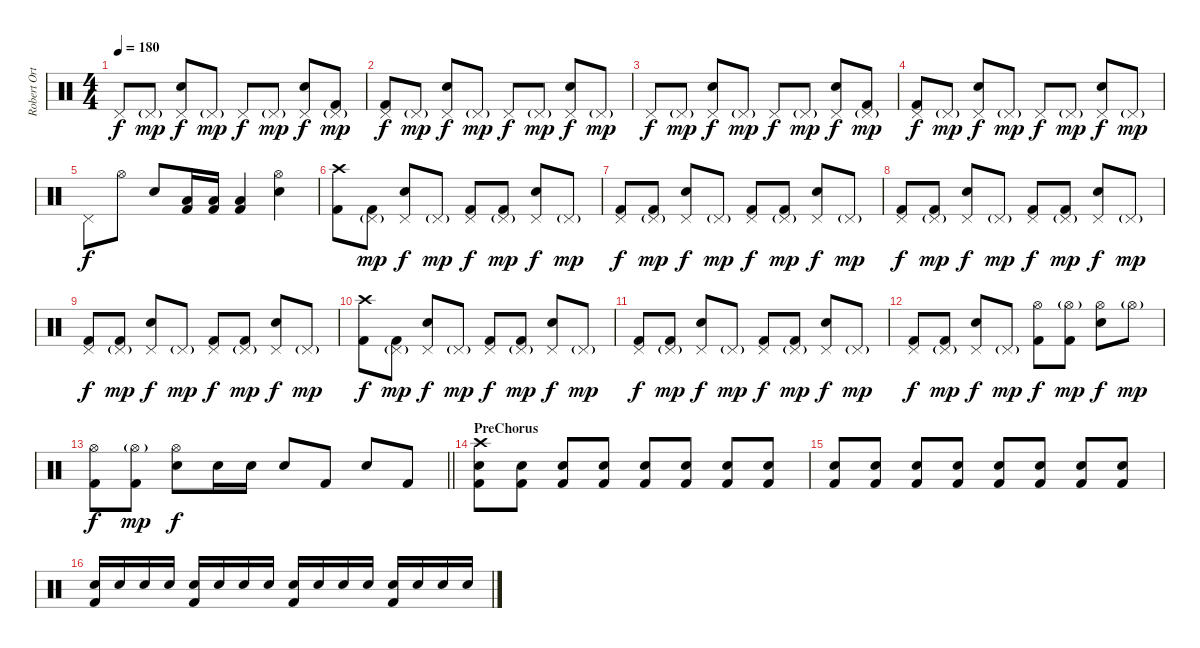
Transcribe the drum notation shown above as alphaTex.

\track ("Robert Ortiz [Drums]" "Robert Ort") {instrument percussion}
\staff {score}
\articulation defaults
\ts (4 4)
\tempo 180
\clef neutral
\ks c "Pedal Hi-Hat (hit)".8{dy f} "Pedal Hi-Hat (hit)"{g}.8{dy mp}
("Pedal Hi-Hat (hit)" "Electric Snare (hit)").8{dy f} "Pedal Hi-Hat (hit)"{g}.8{dy mp} "Pedal Hi-Hat (hit)".8{dy f} "Pedal Hi-Hat (hit)"{g}.8{dy mp} ("Pedal Hi-Hat (hit)" "Electric Snare (hit)").8{dy f} ("Pedal Hi-Hat (hit)"{g} "Kick (hit) 2").8{dy mp} |
("Pedal Hi-Hat (hit)" "Kick (hit) 2").8{dy f} "Pedal Hi-Hat (hit)"{g}.8{dy mp} ("Pedal Hi-Hat (hit)" "Electric Snare (hit)").8{dy f} "Pedal Hi-Hat (hit)"{g}.8{dy mp} "Pedal Hi-Hat (hit)".8{dy f} "Pedal Hi-Hat (hit)"{g}.8{dy mp} ("Pedal Hi-Hat (hit)" "Electric Snare (hit)").8{dy f} "Pedal Hi-Hat (hit)"{g}.8{dy mp} |
"Pedal Hi-Hat (hit)".8{dy f} "Pedal Hi-Hat (hit)"{g}.8{dy mp} ("Pedal Hi-Hat (hit)" "Electric Snare (hit)").8{dy f} "Pedal Hi-Hat (hit)"{g}.8{dy mp} "Pedal Hi-Hat (hit)".8{dy f} "Pedal Hi-Hat (hit)"{g}.8{dy mp} ("Pedal Hi-Hat (hit)" "Electric Snare (hit)").8{dy f} ("Pedal Hi-Hat (hit)"{g} "Kick (hit) 2").8{dy mp} |
("Pedal Hi-Hat (hit)" "Kick (hit) 2").8{dy f} "Pedal Hi-Hat (hit)"{g}.8{dy mp} ("Pedal Hi-Hat (hit)" "Electric Snare (hit)").8{dy f} "Pedal Hi-Hat (hit)"{g}.8{dy mp} "Pedal Hi-Hat (hit)".8{dy f} "Pedal Hi-Hat (hit)"{g}.8{dy mp} ("Pedal Hi-Hat (hit)" "Electric Snare (hit)").8{dy f} "Pedal Hi-Hat (hit)"{g}.8{dy mp} |
"Pedal Hi-Hat (hit)".8{dy f} "Hi-Hat (open)".8 "Electric Snare (hit)".8 ("Low Floor Tom (hit)" "Kick (hit) 2").16 ("Low Floor Tom (hit)" "Kick (hit) 2").16 ("Low Floor Tom (hit)" "Kick (hit) 2").4 ("Hi-Hat (open)" "Electric Snare (hit)").4 |
("Crash high (hit)" "Kick (hit) 2").8 ("Pedal Hi-Hat (hit)"{g} "Kick (hit) 2").8{dy mp} ("Pedal Hi-Hat (hit)" "Electric Snare (hit)").8{dy f} "Pedal Hi-Hat (hit)"{g}.8{dy mp} ("Pedal Hi-Hat (hit)" "Kick (hit) 2").8{dy f} ("Pedal Hi-Hat (hit)"{g} "Kick (hit) 2").8{dy mp} ("Pedal Hi-Hat (hit)" "Electric Snare (hit)").8{dy f} "Pedal Hi-Hat (hit)"{g}.8{dy mp} |
("Pedal Hi-Hat (hit)" "Kick (hit) 2").8{dy f} ("Pedal Hi-Hat (hit)"{g} "Kick (hit) 2").8{dy mp} ("Pedal Hi-Hat (hit)" "Electric Snare (hit)").8{dy f} "Pedal Hi-Hat (hit)"{g}.8{dy mp} ("Pedal Hi-Hat (hit)" "Kick (hit) 2").8{dy f} ("Pedal Hi-Hat (hit)"{g} "Kick (hit) 2").8{dy mp} ("Pedal Hi-Hat (hit)" "Electric Snare (hit)").8{dy f} "Pedal Hi-Hat (hit)"{g}.8{dy mp} |
("Pedal Hi-Hat (hit)" "Kick (hit) 2").8{dy f} ("Pedal Hi-Hat (hit)"{g} "Kick (hit) 2").8{dy mp} ("Pedal Hi-Hat (hit)" "Electric Snare (hit)").8{dy f} "Pedal Hi-Hat (hit)"{g}.8{dy mp} ("Pedal Hi-Hat (hit)" "Kick (hit) 2").8{dy f} ("Pedal Hi-Hat (hit)"{g} "Kick (hit) 2").8{dy mp} ("Pedal Hi-Hat (hit)" "Electric Snare (hit)").8{dy f} "Pedal Hi-Hat (hit)"{g}.8{dy mp} |
("Pedal Hi-Hat (hit)" "Kick (hit) 2").8{dy f} ("Pedal Hi-Hat (hit)"{g} "Kick (hit) 2").8{dy mp} ("Pedal Hi-Hat (hit)" "Electric Snare (hit)").8{dy f} "Pedal Hi-Hat (hit)"{g}.8{dy mp} ("Pedal Hi-Hat (hit)" "Kick (hit) 2").8{dy f} ("Pedal Hi-Hat (hit)"{g} "Kick (hit) 2").8{dy mp} ("Pedal Hi-Hat (hit)" "Electric Snare (hit)").8{dy f} "Pedal Hi-Hat (hit)"{g}.8{dy mp} |
("Crash high (hit)" "Kick (hit) 2").8{dy f} ("Pedal Hi-Hat (hit)"{g} "Kick (hit) 2").8{dy mp} ("Pedal Hi-Hat (hit)" "Electric Snare (hit)").8{dy f} "Pedal Hi-Hat (hit)"{g}.8{dy mp} ("Pedal Hi-Hat (hit)" "Kick (hit) 2").8{dy f} ("Pedal Hi-Hat (hit)"{g} "Kick (hit) 2").8{dy mp} ("Pedal Hi-Hat (hit)" "Electric Snare (hit)").8{dy f} "Pedal Hi-Hat (hit)"{g}.8{dy mp} |
("Pedal Hi-Hat (hit)" "Kick (hit) 2").8{dy f} ("Pedal Hi-Hat (hit)"{g} "Kick (hit) 2").8{dy mp} ("Pedal Hi-Hat (hit)" "Electric Snare (hit)").8{dy f} "Pedal Hi-Hat (hit)"{g}.8{dy mp} ("Pedal Hi-Hat (hit)" "Kick (hit) 2").8{dy f} ("Pedal Hi-Hat (hit)"{g} "Kick (hit) 2").8{dy mp} ("Pedal Hi-Hat (hit)" "Electric Snare (hit)").8{dy f} "Pedal Hi-Hat (hit)"{g}.8{dy mp} |
("Pedal Hi-Hat (hit)" "Kick (hit) 2").8{dy f} ("Pedal Hi-Hat (hit)"{g} "Kick (hit) 2").8{dy mp} ("Pedal Hi-Hat (hit)" "Electric Snare (hit)").8{dy f} "Pedal Hi-Hat (hit)"{g}.8{dy mp} ("Hi-Hat (open)" "Kick (hit) 2").8{dy f} ("Hi-Hat (open)"{g} "Kick (hit) 2").8{dy mp} ("Hi-Hat (open)" "Electric Snare (hit)").8{dy f} "Hi-Hat (open)"{g}.8{dy mp} |
\barLineRight lightlight
("Hi-Hat (open)" "Kick (hit) 2").8{dy f} ("Hi-Hat (open)"{g} "Kick (hit) 2").8{dy mp} ("Hi-Hat (open)" "Electric Snare (hit)").8{dy f} "Electric Snare (hit)".16 "Electric Snare (hit)".16 "Electric Snare (hit)".8 "Kick (hit) 2".8 "Electric Snare (hit)".8 "Kick (hit) 2".8 |
\section ("" "PreChorus")
("Crash high (hit)" "Electric Snare (hit)" "Kick (hit) 2").8 ("Electric Snare (hit)" "Kick (hit) 2").8 ("Electric Snare (hit)" "Kick (hit) 2").8 ("Electric Snare (hit)" "Kick (hit) 2").8 ("Electric Snare (hit)" "Kick (hit) 2").8 ("Electric Snare (hit)" "Kick (hit) 2").8 ("Electric Snare (hit)" "Kick (hit) 2").8 ("Electric Snare (hit)" "Kick (hit) 2").8 |
("Electric Snare (hit)" "Kick (hit) 2").8 ("Electric Snare (hit)" "Kick (hit) 2").8 ("Electric Snare (hit)" "Kick (hit) 2").8 ("Electric Snare (hit)" "Kick (hit) 2").8 ("Electric Snare (hit)" "Kick (hit) 2").8 ("Electric Snare (hit)" "Kick (hit) 2").8 ("Electric Snare (hit)" "Kick (hit) 2").8 ("Electric Snare (hit)" "Kick (hit) 2").8 |
("Electric Snare (hit)" "Kick (hit) 2").16 "Electric Snare (hit)".16 "Electric Snare (hit)".16 "Electric Snare (hit)".16 ("Electric Snare (hit)" "Kick (hit) 2").16 "Electric Snare (hit)".16 "Electric Snare (hit)".16 "Electric Snare (hit)".16 ("Electric Snare (hit)" "Kick (hit) 2").16 "Electric Snare (hit)".16 "Electric Snare (hit)".16 "Electric Snare (hit)".16 ("Electric Snare (hit)" "Kick (hit) 2").16 "Electric Snare (hit)".16 "Electric Snare (hit)".16 "Electric Snare (hit)".16
